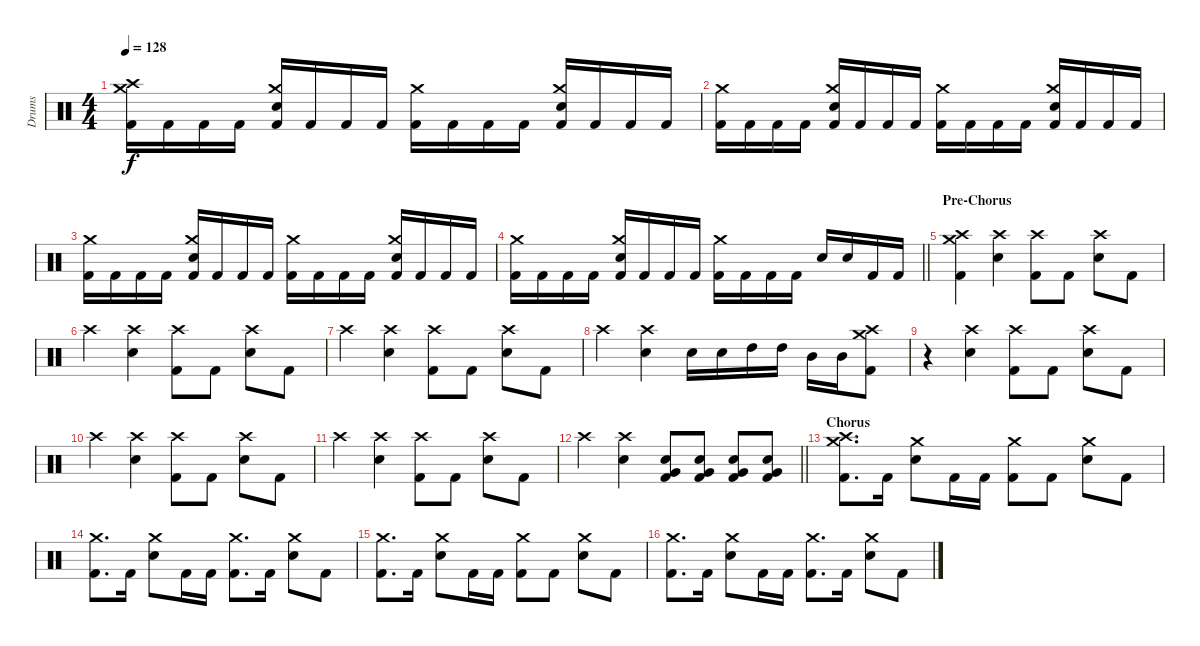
\track ("Drums" "Drums") {instrument percussion}
\staff {score}
\articulation defaults
\ts (4 4)
\tempo 128
\clef neutral
\ks c
("Kick (hit) 2" "Crash high (hit)" "Crash medium (hit)").16{dy f} "Kick (hit) 2".16 "Kick (hit) 2".16 "Kick (hit) 2".16 ("Kick (hit) 2" "Snare (hit) 2" "Crash medium (hit)").16 "Kick (hit) 2".16 "Kick (hit) 2".16 "Kick (hit) 2".16 ("Kick (hit) 2" "Crash medium (hit)").16 "Kick (hit) 2".16 "Kick (hit) 2".16 "Kick (hit) 2".16 ("Kick (hit) 2" "Snare (hit) 2" "Crash medium (hit)").16 "Kick (hit) 2".16 "Kick (hit) 2".16 "Kick (hit) 2".16 |
("Kick (hit) 2" "Crash medium (hit)").16 "Kick (hit) 2".16 "Kick (hit) 2".16 "Kick (hit) 2".16 ("Kick (hit) 2" "Snare (hit) 2" "Crash medium (hit)").16 "Kick (hit) 2".16 "Kick (hit) 2".16 "Kick (hit) 2".16 ("Kick (hit) 2" "Crash medium (hit)").16 "Kick (hit) 2".16 "Kick (hit) 2".16 "Kick (hit) 2".16 ("Kick (hit) 2" "Snare (hit) 2" "Crash medium (hit)").16 "Kick (hit) 2".16 "Kick (hit) 2".16 "Kick (hit) 2".16 |
("Kick (hit) 2" "Crash medium (hit)").16 "Kick (hit) 2".16 "Kick (hit) 2".16 "Kick (hit) 2".16 ("Kick (hit) 2" "Snare (hit) 2" "Crash medium (hit)").16 "Kick (hit) 2".16 "Kick (hit) 2".16 "Kick (hit) 2".16 ("Kick (hit) 2" "Crash medium (hit)").16 "Kick (hit) 2".16 "Kick (hit) 2".16 "Kick (hit) 2".16 ("Kick (hit) 2" "Snare (hit) 2" "Crash medium (hit)").16 "Kick (hit) 2".16 "Kick (hit) 2".16 "Kick (hit) 2".16 |
\barLineRight lightlight
("Kick (hit) 2" "Crash medium (hit)").16 "Kick (hit) 2".16 "Kick (hit) 2".16 "Kick (hit) 2".16 ("Kick (hit) 2" "Snare (hit) 2" "Crash medium (hit)").16 "Kick (hit) 2".16 "Kick (hit) 2".16 "Kick (hit) 2".16 ("Kick (hit) 2" "Crash medium (hit)").16 "Kick (hit) 2".16 "Kick (hit) 2".16 "Kick (hit) 2".16 "Snare (hit) 2".16 "Snare (hit) 2".16 "Kick (hit) 2".16 "Kick (hit) 2".16 |
\section ("" "Pre-Chorus")
("Kick (hit) 2" "Crash high (hit)" "Crash medium (hit)").4 ("Snare (hit) 2" "Crash high (hit)").4 ("Kick (hit) 2" "Crash high (hit)").8 "Kick (hit) 2".8 ("Snare (hit) 2" "Crash high (hit)").8 "Kick (hit) 2".8 |
"Crash high (hit)".4 ("Snare (hit) 2" "Crash high (hit)").4 ("Kick (hit) 2" "Crash high (hit)").8 "Kick (hit) 2".8 ("Snare (hit) 2" "Crash high (hit)").8 "Kick (hit) 2".8 |
"Crash high (hit)".4 ("Snare (hit) 2" "Crash high (hit)").4 ("Kick (hit) 2" "Crash high (hit)").8 "Kick (hit) 2".8 ("Snare (hit) 2" "Crash high (hit)").8 "Kick (hit) 2".8 |
"Crash high (hit)".4 ("Snare (hit) 2" "Crash high (hit)").4 "Snare (hit) 2".16 "Snare (hit) 2".16 "High Tom (hit)".16 "High Tom (hit)".16 "Mid Tom (hit)".16 "Mid Tom (hit)".16 ("Kick (hit) 2" "Crash medium (hit)" "Crash high (hit)").8 |
r.4 ("Snare (hit) 2" "Crash high (hit)").4 ("Kick (hit) 2" "Crash high (hit)").8 "Kick (hit) 2".8 ("Snare (hit) 2" "Crash high (hit)").8 "Kick (hit) 2".8 |
"Crash high (hit)".4 ("Snare (hit) 2" "Crash high (hit)").4 ("Kick (hit) 2" "Crash high (hit)").8 "Kick (hit) 2".8 ("Snare (hit) 2" "Crash high (hit)").8 "Kick (hit) 2".8 |
"Crash high (hit)".4 ("Snare (hit) 2" "Crash high (hit)").4 ("Kick (hit) 2" "Crash high (hit)").8 "Kick (hit) 2".8 ("Snare (hit) 2" "Crash high (hit)").8 "Kick (hit) 2".8 |
\barLineRight lightlight "Crash high (hit)".4
("Snare (hit) 2" "Crash high (hit)").4 ("Kick (hit) 2" "Snare (hit) 2" "Very Low Tom (hit)").8 ("Kick (hit) 2" "Snare (hit) 2" "Very Low Tom (hit)").8 ("Kick (hit) 2" "Snare (hit) 2" "Very Low Tom (hit)").8 ("Kick (hit) 2" "Snare (hit) 2" "Very Low Tom (hit)").8 |
\section ("" "Chorus")
("Kick (hit) 2" "Crash high (hit)" "Crash medium (hit)").8{d} "Kick (hit) 2".16 ("Snare (hit) 2" "Crash medium (hit)").8 "Kick (hit) 2".16 "Kick (hit) 2".16 ("Kick (hit) 2" "Crash medium (hit)").8 "Kick (hit) 2".8 ("Snare (hit) 2" "Crash medium (hit)").8 "Kick (hit) 2".8 |
("Kick (hit) 2" "Crash medium (hit)").8{d} "Kick (hit) 2".16 ("Snare (hit) 2" "Crash medium (hit)").8 "Kick (hit) 2".16 "Kick (hit) 2".16 ("Kick (hit) 2" "Crash medium (hit)").8{d} "Kick (hit) 2".16 ("Snare (hit) 2" "Crash medium (hit)").8 "Kick (hit) 2".8 |
("Kick (hit) 2" "Crash medium (hit)").8{d} "Kick (hit) 2".16 ("Snare (hit) 2" "Crash medium (hit)").8 "Kick (hit) 2".16 "Kick (hit) 2".16 ("Kick (hit) 2" "Crash medium (hit)").8 "Kick (hit) 2".8 ("Snare (hit) 2" "Crash medium (hit)").8 "Kick (hit) 2".8 |
("Kick (hit) 2" "Crash medium (hit)").8{d} "Kick (hit) 2".16 ("Snare (hit) 2" "Crash medium (hit)").8 "Kick (hit) 2".16 "Kick (hit) 2".16 ("Kick (hit) 2" "Crash medium (hit)").8{d} "Kick (hit) 2".16 ("Snare (hit) 2" "Crash medium (hit)").8 "Kick (hit) 2".8
